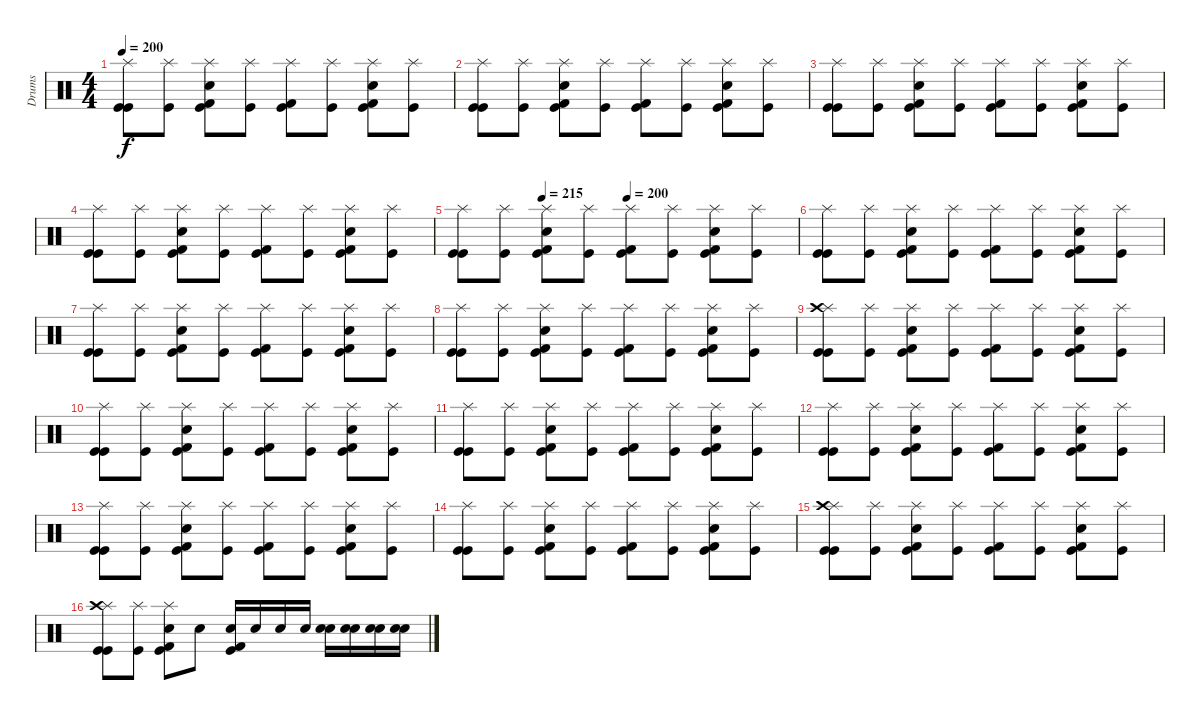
\track ("Drums" "Drums") {instrument percussion}
\staff {score}
\articulation defaults
\ts (4 4)
\tempo 200
\clef neutral
\ks c
("Splash (hit)" "Kick (hit)" "Kick (hit)").8{dy f} ("Splash (hit)" "Kick (hit)").8 ("Splash (hit)" "Snare (hit) 2" "Kick (hit) 2" "Kick (hit)").8 ("Splash (hit)" "Kick (hit)").8 ("Splash (hit)" "Kick (hit) 2" "Kick (hit)").8 ("Splash (hit)" "Kick (hit)").8 ("Splash (hit)" "Snare (hit) 2" "Kick (hit) 2" "Kick (hit)").8 ("Splash (hit)" "Kick (hit)").8 |
("Splash (hit)" "Kick (hit)" "Kick (hit)").8 ("Splash (hit)" "Kick (hit)").8 ("Splash (hit)" "Snare (hit) 2" "Kick (hit) 2" "Kick (hit)").8 ("Splash (hit)" "Kick (hit)").8 ("Splash (hit)" "Kick (hit) 2" "Kick (hit)").8 ("Splash (hit)" "Kick (hit)").8 ("Splash (hit)" "Snare (hit) 2" "Kick (hit) 2" "Kick (hit)").8 ("Splash (hit)" "Kick (hit)").8 |
("Splash (hit)" "Kick (hit)" "Kick (hit)").8 ("Splash (hit)" "Kick (hit)").8 ("Splash (hit)" "Snare (hit) 2" "Kick (hit) 2" "Kick (hit)").8 ("Splash (hit)" "Kick (hit)").8 ("Splash (hit)" "Kick (hit) 2" "Kick (hit)").8 ("Splash (hit)" "Kick (hit)").8 ("Splash (hit)" "Snare (hit) 2" "Kick (hit) 2" "Kick (hit)").8 ("Splash (hit)" "Kick (hit)").8 |
("Splash (hit)" "Kick (hit)" "Kick (hit)").8 ("Splash (hit)" "Kick (hit)").8 ("Splash (hit)" "Snare (hit) 2" "Kick (hit) 2" "Kick (hit)").8 ("Splash (hit)" "Kick (hit)").8 ("Splash (hit)" "Kick (hit) 2" "Kick (hit)").8 ("Splash (hit)" "Kick (hit)").8 ("Splash (hit)" "Snare (hit) 2" "Kick (hit) 2" "Kick (hit)").8 ("Splash (hit)" "Kick (hit)").8 |
\tempo (215 0.25)
\tempo (200 0.5)
("Splash (hit)" "Kick (hit)" "Kick (hit)").8 ("Splash (hit)" "Kick (hit)").8 ("Splash (hit)" "Snare (hit) 2" "Kick (hit) 2" "Kick (hit)").8 ("Splash (hit)" "Kick (hit)").8 ("Splash (hit)" "Kick (hit) 2" "Kick (hit)").8 ("Splash (hit)" "Kick (hit)").8 ("Splash (hit)" "Snare (hit) 2" "Kick (hit) 2" "Kick (hit)").8 ("Splash (hit)" "Kick (hit)").8 |
("Splash (hit)" "Kick (hit)" "Kick (hit)").8 ("Splash (hit)" "Kick (hit)").8 ("Splash (hit)" "Snare (hit) 2" "Kick (hit) 2" "Kick (hit)").8 ("Splash (hit)" "Kick (hit)").8 ("Splash (hit)" "Kick (hit) 2" "Kick (hit)").8 ("Splash (hit)" "Kick (hit)").8 ("Splash (hit)" "Snare (hit) 2" "Kick (hit) 2" "Kick (hit)").8 ("Splash (hit)" "Kick (hit)").8 |
("Splash (hit)" "Kick (hit)" "Kick (hit)").8 ("Splash (hit)" "Kick (hit)").8 ("Splash (hit)" "Snare (hit) 2" "Kick (hit) 2" "Kick (hit)").8 ("Splash (hit)" "Kick (hit)").8 ("Splash (hit)" "Kick (hit) 2" "Kick (hit)").8 ("Splash (hit)" "Kick (hit)").8 ("Splash (hit)" "Snare (hit) 2" "Kick (hit) 2" "Kick (hit)").8 ("Splash (hit)" "Kick (hit)").8 |
("Splash (hit)" "Kick (hit)" "Kick (hit)").8 ("Splash (hit)" "Kick (hit)").8 ("Splash (hit)" "Snare (hit) 2" "Kick (hit) 2" "Kick (hit)").8 ("Splash (hit)" "Kick (hit)").8 ("Splash (hit)" "Kick (hit) 2" "Kick (hit)").8 ("Splash (hit)" "Kick (hit)").8 ("Splash (hit)" "Snare (hit) 2" "Kick (hit) 2" "Kick (hit)").8 ("Splash (hit)" "Kick (hit)").8 |
("Splash (hit)" "Crash high (hit)" "Kick (hit)" "Kick (hit)").8 ("Splash (hit)" "Kick (hit)").8 ("Splash (hit)" "Snare (hit) 2" "Kick (hit) 2" "Kick (hit)").8 ("Splash (hit)" "Kick (hit)").8 ("Splash (hit)" "Kick (hit) 2" "Kick (hit)").8 ("Splash (hit)" "Kick (hit)").8 ("Splash (hit)" "Snare (hit) 2" "Kick (hit) 2" "Kick (hit)").8 ("Splash (hit)" "Kick (hit)").8 |
("Splash (hit)" "Kick (hit)" "Kick (hit)").8 ("Splash (hit)" "Kick (hit)").8 ("Splash (hit)" "Snare (hit) 2" "Kick (hit) 2" "Kick (hit)").8 ("Splash (hit)" "Kick (hit)").8 ("Splash (hit)" "Kick (hit) 2" "Kick (hit)").8 ("Splash (hit)" "Kick (hit)").8 ("Splash (hit)" "Snare (hit) 2" "Kick (hit) 2" "Kick (hit)").8 ("Splash (hit)" "Kick (hit)").8 |
("Splash (hit)" "Kick (hit)" "Kick (hit)").8 ("Splash (hit)" "Kick (hit)").8 ("Splash (hit)" "Snare (hit) 2" "Kick (hit) 2" "Kick (hit)").8 ("Splash (hit)" "Kick (hit)").8 ("Splash (hit)" "Kick (hit) 2" "Kick (hit)").8 ("Splash (hit)" "Kick (hit)").8 ("Splash (hit)" "Snare (hit) 2" "Kick (hit) 2" "Kick (hit)").8 ("Splash (hit)" "Kick (hit)").8 |
("Splash (hit)" "Kick (hit)" "Kick (hit)").8 ("Splash (hit)" "Kick (hit)").8 ("Splash (hit)" "Snare (hit) 2" "Kick (hit) 2" "Kick (hit)").8 ("Splash (hit)" "Kick (hit)").8 ("Splash (hit)" "Kick (hit) 2" "Kick (hit)").8 ("Splash (hit)" "Kick (hit)").8 ("Splash (hit)" "Snare (hit) 2" "Kick (hit) 2" "Kick (hit)").8 ("Splash (hit)" "Kick (hit)").8 |
("Splash (hit)" "Kick (hit)" "Kick (hit)").8 ("Splash (hit)" "Kick (hit)").8 ("Splash (hit)" "Snare (hit) 2" "Kick (hit) 2" "Kick (hit)").8 ("Splash (hit)" "Kick (hit)").8 ("Splash (hit)" "Kick (hit) 2" "Kick (hit)").8 ("Splash (hit)" "Kick (hit)").8 ("Splash (hit)" "Snare (hit) 2" "Kick (hit) 2" "Kick (hit)").8 ("Splash (hit)" "Kick (hit)").8 |
("Splash (hit)" "Kick (hit)" "Kick (hit)").8 ("Splash (hit)" "Kick (hit)").8 ("Splash (hit)" "Snare (hit) 2" "Kick (hit) 2" "Kick (hit)").8 ("Splash (hit)" "Kick (hit)").8 ("Splash (hit)" "Kick (hit) 2" "Kick (hit)").8 ("Splash (hit)" "Kick (hit)").8 ("Splash (hit)" "Snare (hit) 2" "Kick (hit) 2" "Kick (hit)").8 ("Splash (hit)" "Kick (hit)").8 |
("Splash (hit)" "Crash high (hit)" "Kick (hit)" "Kick (hit)").8 ("Splash (hit)" "Kick (hit)").8 ("Splash (hit)" "Snare (hit) 2" "Kick (hit) 2" "Kick (hit)").8 ("Splash (hit)" "Kick (hit)").8 ("Splash (hit)" "Kick (hit) 2" "Kick (hit)").8 ("Splash (hit)" "Kick (hit)").8 ("Splash (hit)" "Snare (hit) 2" "Kick (hit) 2" "Kick (hit)").8 ("Splash (hit)" "Kick (hit)").8 |
("Splash (hit)" "Crash high (hit)" "Kick (hit)" "Kick (hit)").8 ("Splash (hit)" "Kick (hit)").8 ("Splash (hit)" "Snare (hit) 2" "Kick (hit) 2" "Kick (hit)").8 "Snare (hit) 2".8 ("Snare (hit) 2" "Kick (hit)" "Kick (hit) 2").16 "Snare (hit) 2".16 "Snare (hit) 2".16 "Snare (hit) 2".16 ("Snare (hit) 2" "Electric Snare (hit)").16 ("Snare (hit) 2" "Electric Snare (hit)").16 ("Snare (hit) 2" "Electric Snare (hit)").16 ("Snare (hit) 2" "Electric Snare (hit)").16
